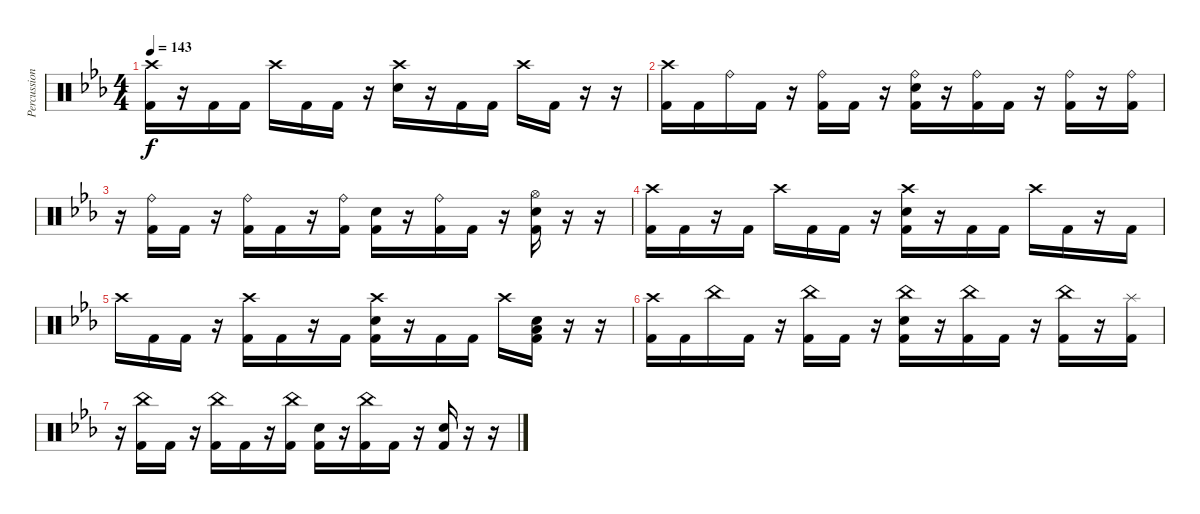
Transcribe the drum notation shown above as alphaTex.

\track ("Percussion" "Percussion") {instrument percussion}
\staff {score}
\articulation defaults
\ts (4 4)
\tempo 143
\clef neutral
\ks cminor
("Crash high (hit)" "Kick (hit) 2").16{dy f} r.16 "Kick (hit) 2".16 "Kick (hit) 2".16 "Crash high (hit)".16 "Kick (hit) 2".16 "Kick (hit) 2".16 r.16 ("Crash high (hit)" "Electric Snare (hit)").16 r.16 "Kick (hit) 2".16 "Kick (hit) 2".16 "Crash high (hit)".16 "Kick (hit) 2".16 r.16 r.16 |
("Crash high (hit)" "Kick (hit) 2").16 "Kick (hit) 2".16 "Ride (bell)".16 "Kick (hit) 2".16 r.16 ("Ride (bell)" "Kick (hit) 2").16 "Kick (hit) 2".16 r.16 ("Ride (bell)" "Electric Snare (hit)" "Kick (hit) 2").16 r.16 ("Ride (bell)" "Kick (hit) 2").16 "Kick (hit) 2".16 r.16 ("Ride (bell)" "Kick (hit) 2").16 r.16 ("Ride (bell)" "Kick (hit) 2").16 |
r.16 ("Ride (bell)" "Kick (hit) 2").16 "Kick (hit) 2".16 r.16 ("Ride (bell)" "Kick (hit) 2").16 "Kick (hit) 2".16 r.16 ("Ride (bell)" "Kick (hit) 2").16 ("Electric Snare (hit)" "Kick (hit) 2").16 r.16 ("Ride (bell)" "Kick (hit) 2").16 "Kick (hit) 2".16 r.16 ("Hi-Hat (open)" "Electric Snare (hit)" "Kick (hit) 2").16 r.16 r.16 |
("Crash high (hit)" "Kick (hit) 2").16 "Kick (hit) 2".16 r.16 "Kick (hit) 2".16 "Crash high (hit)".16 "Kick (hit) 2".16 "Kick (hit) 2".16 r.16 ("Crash high (hit)" "Electric Snare (hit)" "Kick (hit) 2").16 r.16 "Kick (hit) 2".16 "Kick (hit) 2".16 "Crash high (hit)".16 "Kick (hit) 2".16 r.16 "Kick (hit) 2".16 |
"Crash high (hit)".16 "Kick (hit) 2".16 "Kick (hit) 2".16 r.16 ("Crash high (hit)" "Kick (hit) 2").16 "Kick (hit) 2".16 r.16 "Kick (hit) 2".16 ("Crash high (hit)" "Electric Snare (hit)" "Kick (hit) 2").16 r.16 "Kick (hit) 2".16 "Kick (hit) 2".16 "Crash high (hit)".16 ("Low Floor Tom (hit)" "Electric Snare (hit)" "Kick (hit) 2").16 r.16 r.16 |
("Crash high (hit)" "Kick (hit) 2").16 "Kick (hit) 2".16 "China (hit)".16 "Kick (hit) 2".16 r.16 ("China (hit)" "Kick (hit) 2").16 "Kick (hit) 2".16 r.16 ("China (hit)" "Electric Snare (hit)" "Kick (hit) 2").16 r.16 ("China (hit)" "Kick (hit) 2").16 "Kick (hit) 2".16 r.16 ("China (hit)" "Kick (hit) 2").16 r.16 ("Splash (hit)" "Kick (hit) 2").16 |
r.16 ("China (hit)" "Kick (hit) 2").16 "Kick (hit) 2".16 r.16 ("China (hit)" "Kick (hit) 2").16 "Kick (hit) 2".16 r.16 ("China (hit)" "Kick (hit) 2").16 ("Electric Snare (hit)" "Kick (hit) 2").16 r.16 ("China (hit)" "Kick (hit) 2").16 "Kick (hit) 2".16 r.16 ("Electric Snare (hit)" "Kick (hit) 2").16 r.16 r.16
